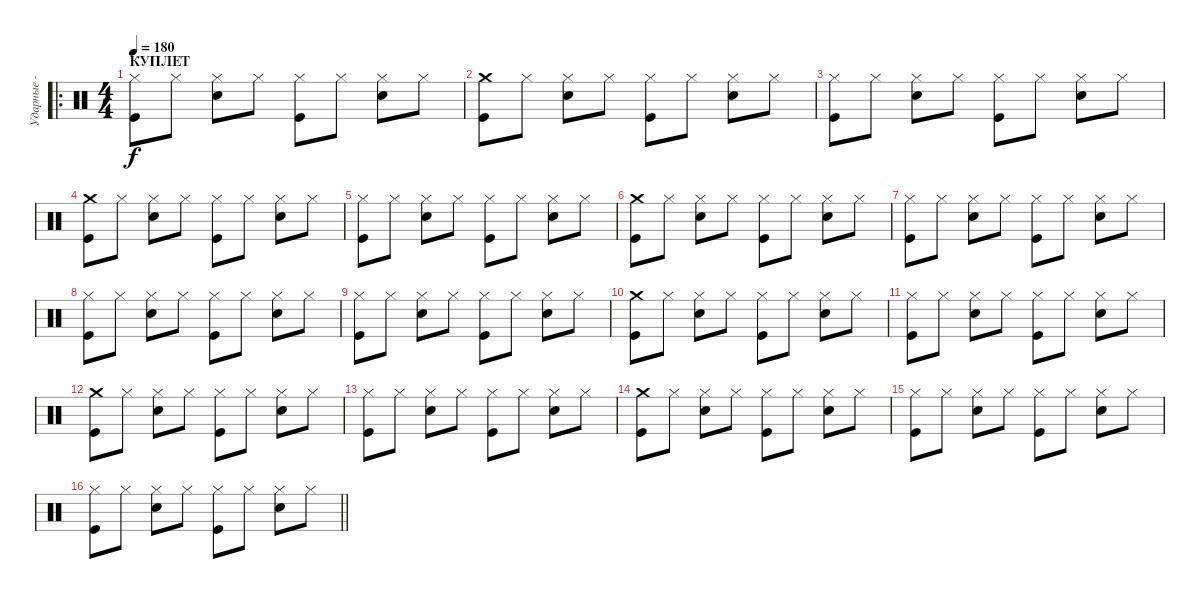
\track ("Ударные - Томми Рамон" "Ударные - ") {instrument percussion}
\staff {score}
\articulation defaults
\ro
\ts (4 4)
\section ("" "КУПЛЕТ ")
\tempo 180
\clef neutral
\ks c
("Hi-Hat (closed)" "Kick (hit)").8{dy f} "Hi-Hat (closed)".8 ("Hi-Hat (closed)" "Snare (hit) 2").8 "Hi-Hat (closed)".8 ("Hi-Hat (closed)" "Kick (hit)").8 "Hi-Hat (closed)".8 ("Hi-Hat (closed)" "Snare (hit) 2").8 "Hi-Hat (closed)".8 |
("Crash medium (hit)" "Kick (hit)").8 "Hi-Hat (closed)".8 ("Hi-Hat (closed)" "Snare (hit) 2").8 "Hi-Hat (closed)".8 ("Hi-Hat (closed)" "Kick (hit)").8 "Hi-Hat (closed)".8 ("Hi-Hat (closed)" "Snare (hit) 2").8 "Hi-Hat (closed)".8 |
("Hi-Hat (closed)" "Kick (hit)").8 "Hi-Hat (closed)".8 ("Hi-Hat (closed)" "Snare (hit) 2").8 "Hi-Hat (closed)".8 ("Hi-Hat (closed)" "Kick (hit)").8 "Hi-Hat (closed)".8 ("Hi-Hat (closed)" "Snare (hit) 2").8 "Hi-Hat (closed)".8 |
("Crash medium (hit)" "Kick (hit)").8 "Hi-Hat (closed)".8 ("Hi-Hat (closed)" "Snare (hit) 2").8 "Hi-Hat (closed)".8 ("Hi-Hat (closed)" "Kick (hit)").8 "Hi-Hat (closed)".8 ("Hi-Hat (closed)" "Snare (hit) 2").8 "Hi-Hat (closed)".8 |
("Hi-Hat (closed)" "Kick (hit)").8 "Hi-Hat (closed)".8 ("Hi-Hat (closed)" "Snare (hit) 2").8 "Hi-Hat (closed)".8 ("Hi-Hat (closed)" "Kick (hit)").8 "Hi-Hat (closed)".8 ("Hi-Hat (closed)" "Snare (hit) 2").8 "Hi-Hat (closed)".8 |
("Crash medium (hit)" "Kick (hit)").8 "Hi-Hat (closed)".8 ("Hi-Hat (closed)" "Snare (hit) 2").8 "Hi-Hat (closed)".8 ("Hi-Hat (closed)" "Kick (hit)").8 "Hi-Hat (closed)".8 ("Hi-Hat (closed)" "Snare (hit) 2").8 "Hi-Hat (closed)".8 |
("Hi-Hat (closed)" "Kick (hit)").8 "Hi-Hat (closed)".8 ("Hi-Hat (closed)" "Snare (hit) 2").8 "Hi-Hat (closed)".8 ("Hi-Hat (closed)" "Kick (hit)").8 "Hi-Hat (closed)".8 ("Hi-Hat (closed)" "Snare (hit) 2").8 "Hi-Hat (closed)".8 |
("Hi-Hat (closed)" "Kick (hit)").8 "Hi-Hat (closed)".8 ("Hi-Hat (closed)" "Snare (hit) 2").8 "Hi-Hat (closed)".8 ("Hi-Hat (closed)" "Kick (hit)").8 "Hi-Hat (closed)".8 ("Hi-Hat (closed)" "Snare (hit) 2").8 "Hi-Hat (closed)".8 |
("Hi-Hat (closed)" "Kick (hit)").8 "Hi-Hat (closed)".8 ("Hi-Hat (closed)" "Snare (hit) 2").8 "Hi-Hat (closed)".8 ("Hi-Hat (closed)" "Kick (hit)").8 "Hi-Hat (closed)".8 ("Hi-Hat (closed)" "Snare (hit) 2").8 "Hi-Hat (closed)".8 |
("Crash medium (hit)" "Kick (hit)").8 "Hi-Hat (closed)".8 ("Hi-Hat (closed)" "Snare (hit) 2").8 "Hi-Hat (closed)".8 ("Hi-Hat (closed)" "Kick (hit)").8 "Hi-Hat (closed)".8 ("Hi-Hat (closed)" "Snare (hit) 2").8 "Hi-Hat (closed)".8 |
("Hi-Hat (closed)" "Kick (hit)").8 "Hi-Hat (closed)".8 ("Hi-Hat (closed)" "Snare (hit) 2").8 "Hi-Hat (closed)".8 ("Hi-Hat (closed)" "Kick (hit)").8 "Hi-Hat (closed)".8 ("Hi-Hat (closed)" "Snare (hit) 2").8 "Hi-Hat (closed)".8 |
("Crash medium (hit)" "Kick (hit)").8 "Hi-Hat (closed)".8 ("Hi-Hat (closed)" "Snare (hit) 2").8 "Hi-Hat (closed)".8 ("Hi-Hat (closed)" "Kick (hit)").8 "Hi-Hat (closed)".8 ("Hi-Hat (closed)" "Snare (hit) 2").8 "Hi-Hat (closed)".8 |
("Hi-Hat (closed)" "Kick (hit)").8 "Hi-Hat (closed)".8 ("Hi-Hat (closed)" "Snare (hit) 2").8 "Hi-Hat (closed)".8 ("Hi-Hat (closed)" "Kick (hit)").8 "Hi-Hat (closed)".8 ("Hi-Hat (closed)" "Snare (hit) 2").8 "Hi-Hat (closed)".8 |
("Crash medium (hit)" "Kick (hit)").8 "Hi-Hat (closed)".8 ("Hi-Hat (closed)" "Snare (hit) 2").8 "Hi-Hat (closed)".8 ("Hi-Hat (closed)" "Kick (hit)").8 "Hi-Hat (closed)".8 ("Hi-Hat (closed)" "Snare (hit) 2").8 "Hi-Hat (closed)".8 |
("Hi-Hat (closed)" "Kick (hit)").8 "Hi-Hat (closed)".8 ("Hi-Hat (closed)" "Snare (hit) 2").8 "Hi-Hat (closed)".8 ("Hi-Hat (closed)" "Kick (hit)").8 "Hi-Hat (closed)".8 ("Hi-Hat (closed)" "Snare (hit) 2").8 "Hi-Hat (closed)".8 |
\barLineRight lightlight
("Hi-Hat (closed)" "Kick (hit)").8 "Hi-Hat (closed)".8 ("Hi-Hat (closed)" "Snare (hit) 2").8 "Hi-Hat (closed)".8 ("Hi-Hat (closed)" "Kick (hit)").8 "Hi-Hat (closed)".8 ("Hi-Hat (closed)" "Snare (hit) 2").8 "Hi-Hat (closed)".8
